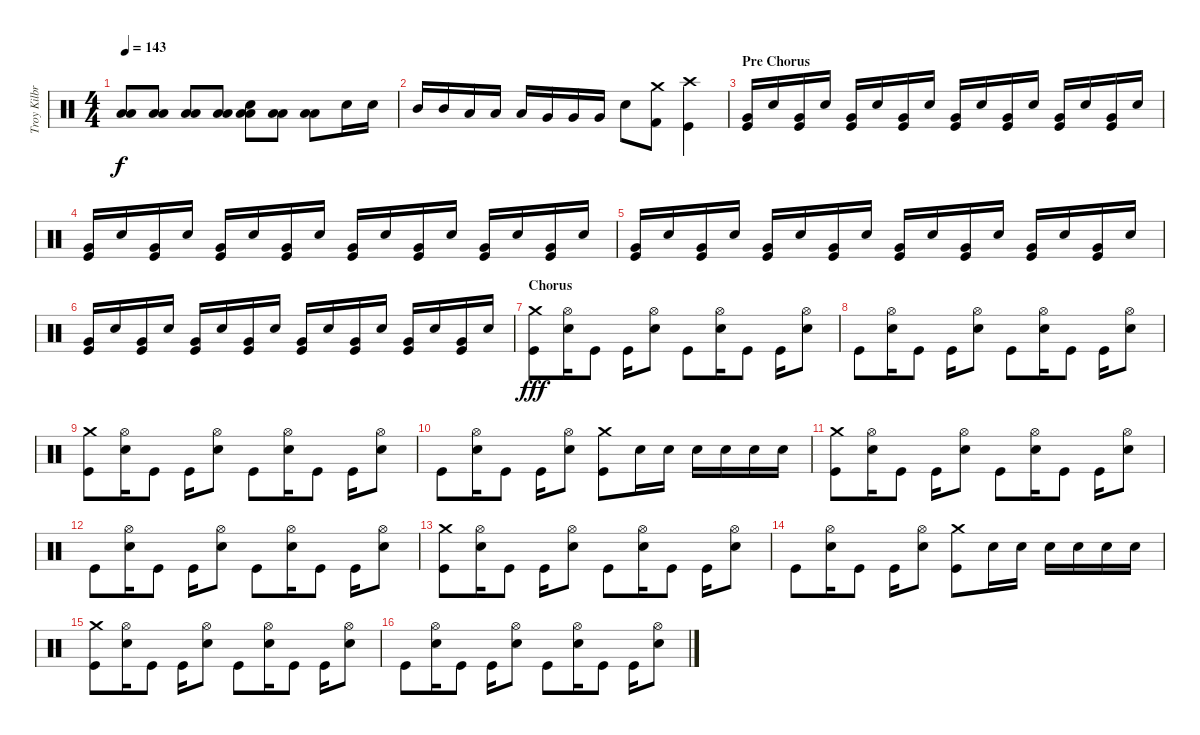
\track ("Troy Kilbride" "Troy Kilbr") {instrument percussion}
\staff {score}
\articulation defaults
\ts (4 4)
\tempo 143
\clef neutral
\ks c
("Low Floor Tom (hit)" "Low Floor Tom (hit)").8{dy f} ("Low Floor Tom (hit)" "Low Floor Tom (hit)").8 ("Low Floor Tom (hit)" "Low Floor Tom (hit)").8 ("Low Floor Tom (hit)" "Low Floor Tom (hit)").8 ("Low Floor Tom (hit)" "Snare (hit) 2" "Low Floor Tom (hit)").8 ("Low Floor Tom (hit)" "Low Floor Tom (hit)").8 ("Low Floor Tom (hit)" "Low Floor Tom (hit)").8 "Snare (hit) 2".16 "Snare (hit) 2".16 |
"Mid Tom (hit)".16 "Mid Tom (hit)".16 "Low Tom (hit)".16 "Low Tom (hit)".16 "Low Tom (hit)".16 "Very Low Tom (hit)".16 "Very Low Tom (hit)".16 "Very Low Tom (hit)".16 "Snare (hit) 2".8 ("Crash medium (hit)" "Kick (hit) 2").8 ("Crash high (hit)" "Kick (hit)").4 |
\section ("" "Pre Chorus")
("Very Low Tom (hit)" "Kick (hit)").16 "Electric Snare (hit)".16 ("Very Low Tom (hit)" "Kick (hit)").16 "Electric Snare (hit)".16 ("Very Low Tom (hit)" "Kick (hit)").16 "Electric Snare (hit)".16 ("Very Low Tom (hit)" "Kick (hit)").16 "Electric Snare (hit)".16 ("Very Low Tom (hit)" "Kick (hit)").16 "Electric Snare (hit)".16 ("Very Low Tom (hit)" "Kick (hit)").16 "Electric Snare (hit)".16 ("Very Low Tom (hit)" "Kick (hit)").16 "Electric Snare (hit)".16 ("Very Low Tom (hit)" "Kick (hit)").16 "Electric Snare (hit)".16 |
("Very Low Tom (hit)" "Kick (hit)").16 "Electric Snare (hit)".16 ("Very Low Tom (hit)" "Kick (hit)").16 "Electric Snare (hit)".16 ("Very Low Tom (hit)" "Kick (hit)").16 "Electric Snare (hit)".16 ("Very Low Tom (hit)" "Kick (hit)").16 "Electric Snare (hit)".16 ("Very Low Tom (hit)" "Kick (hit)").16 "Electric Snare (hit)".16 ("Very Low Tom (hit)" "Kick (hit)").16 "Electric Snare (hit)".16 ("Very Low Tom (hit)" "Kick (hit)").16 "Electric Snare (hit)".16 ("Very Low Tom (hit)" "Kick (hit)").16 "Electric Snare (hit)".16 |
("Very Low Tom (hit)" "Kick (hit)").16 "Electric Snare (hit)".16 ("Very Low Tom (hit)" "Kick (hit)").16 "Electric Snare (hit)".16 ("Very Low Tom (hit)" "Kick (hit)").16 "Electric Snare (hit)".16 ("Very Low Tom (hit)" "Kick (hit)").16 "Electric Snare (hit)".16 ("Very Low Tom (hit)" "Kick (hit)").16 "Electric Snare (hit)".16 ("Very Low Tom (hit)" "Kick (hit)").16 "Electric Snare (hit)".16 ("Very Low Tom (hit)" "Kick (hit)").16 "Electric Snare (hit)".16 ("Very Low Tom (hit)" "Kick (hit)").16 "Electric Snare (hit)".16 |
("Very Low Tom (hit)" "Kick (hit)").16 "Electric Snare (hit)".16 ("Very Low Tom (hit)" "Kick (hit)").16 "Electric Snare (hit)".16 ("Very Low Tom (hit)" "Kick (hit)").16 "Electric Snare (hit)".16 ("Very Low Tom (hit)" "Kick (hit)").16 "Electric Snare (hit)".16 ("Very Low Tom (hit)" "Kick (hit)").16 "Electric Snare (hit)".16 ("Very Low Tom (hit)" "Kick (hit)").16 "Electric Snare (hit)".16 ("Very Low Tom (hit)" "Kick (hit)").16 "Electric Snare (hit)".16 ("Very Low Tom (hit)" "Kick (hit)").16 "Electric Snare (hit)".16 |
\section ("" "Chorus")
("Crash medium (hit)" "Kick (hit)").8{dy fff} ("Hi-Hat (open)" "Electric Snare (hit)").16 "Kick (hit)".8 "Kick (hit)".16 ("Hi-Hat (open)" "Electric Snare (hit)").8 "Kick (hit)".8 ("Hi-Hat (open)" "Electric Snare (hit)").16 "Kick (hit)".8 "Kick (hit)".16 ("Hi-Hat (open)" "Electric Snare (hit)").8 |
"Kick (hit)".8 ("Hi-Hat (open)" "Electric Snare (hit)").16 "Kick (hit)".8 "Kick (hit)".16 ("Hi-Hat (open)" "Electric Snare (hit)").8 "Kick (hit)".8 ("Hi-Hat (open)" "Electric Snare (hit)").16 "Kick (hit)".8 "Kick (hit)".16 ("Hi-Hat (open)" "Electric Snare (hit)").8 |
("Crash medium (hit)" "Kick (hit)").8 ("Hi-Hat (open)" "Electric Snare (hit)").16 "Kick (hit)".8 "Kick (hit)".16 ("Hi-Hat (open)" "Electric Snare (hit)").8 "Kick (hit)".8 ("Hi-Hat (open)" "Electric Snare (hit)").16 "Kick (hit)".8 "Kick (hit)".16 ("Hi-Hat (open)" "Electric Snare (hit)").8 |
"Kick (hit)".8 ("Hi-Hat (open)" "Electric Snare (hit)").16 "Kick (hit)".8 "Kick (hit)".16 ("Hi-Hat (open)" "Electric Snare (hit)").8 ("Crash medium (hit)" "Kick (hit)").8 "Electric Snare (hit)".16 "Electric Snare (hit)".16 "Electric Snare (hit)".16 "Electric Snare (hit)".16 "Electric Snare (hit)".16 "Electric Snare (hit)".16 |
("Crash medium (hit)" "Kick (hit)").8 ("Hi-Hat (open)" "Electric Snare (hit)").16 "Kick (hit)".8 "Kick (hit)".16 ("Hi-Hat (open)" "Electric Snare (hit)").8 "Kick (hit)".8 ("Hi-Hat (open)" "Electric Snare (hit)").16 "Kick (hit)".8 "Kick (hit)".16 ("Hi-Hat (open)" "Electric Snare (hit)").8 |
"Kick (hit)".8 ("Hi-Hat (open)" "Electric Snare (hit)").16 "Kick (hit)".8 "Kick (hit)".16 ("Hi-Hat (open)" "Electric Snare (hit)").8 "Kick (hit)".8 ("Hi-Hat (open)" "Electric Snare (hit)").16 "Kick (hit)".8 "Kick (hit)".16 ("Hi-Hat (open)" "Electric Snare (hit)").8 |
("Crash medium (hit)" "Kick (hit)").8 ("Hi-Hat (open)" "Electric Snare (hit)").16 "Kick (hit)".8 "Kick (hit)".16 ("Hi-Hat (open)" "Electric Snare (hit)").8 "Kick (hit)".8 ("Hi-Hat (open)" "Electric Snare (hit)").16 "Kick (hit)".8 "Kick (hit)".16 ("Hi-Hat (open)" "Electric Snare (hit)").8 |
"Kick (hit)".8 ("Hi-Hat (open)" "Electric Snare (hit)").16 "Kick (hit)".8 "Kick (hit)".16 ("Hi-Hat (open)" "Electric Snare (hit)").8 ("Crash medium (hit)" "Kick (hit)").8 "Electric Snare (hit)".16 "Electric Snare (hit)".16 "Electric Snare (hit)".16 "Electric Snare (hit)".16 "Electric Snare (hit)".16 "Electric Snare (hit)".16 |
("Crash medium (hit)" "Kick (hit)").8 ("Hi-Hat (open)" "Electric Snare (hit)").16 "Kick (hit)".8 "Kick (hit)".16 ("Hi-Hat (open)" "Electric Snare (hit)").8 "Kick (hit)".8 ("Hi-Hat (open)" "Electric Snare (hit)").16 "Kick (hit)".8 "Kick (hit)".16 ("Hi-Hat (open)" "Electric Snare (hit)").8 |
"Kick (hit)".8 ("Hi-Hat (open)" "Electric Snare (hit)").16 "Kick (hit)".8 "Kick (hit)".16 ("Hi-Hat (open)" "Electric Snare (hit)").8 "Kick (hit)".8 ("Hi-Hat (open)" "Electric Snare (hit)").16 "Kick (hit)".8 "Kick (hit)".16 ("Hi-Hat (open)" "Electric Snare (hit)").8
